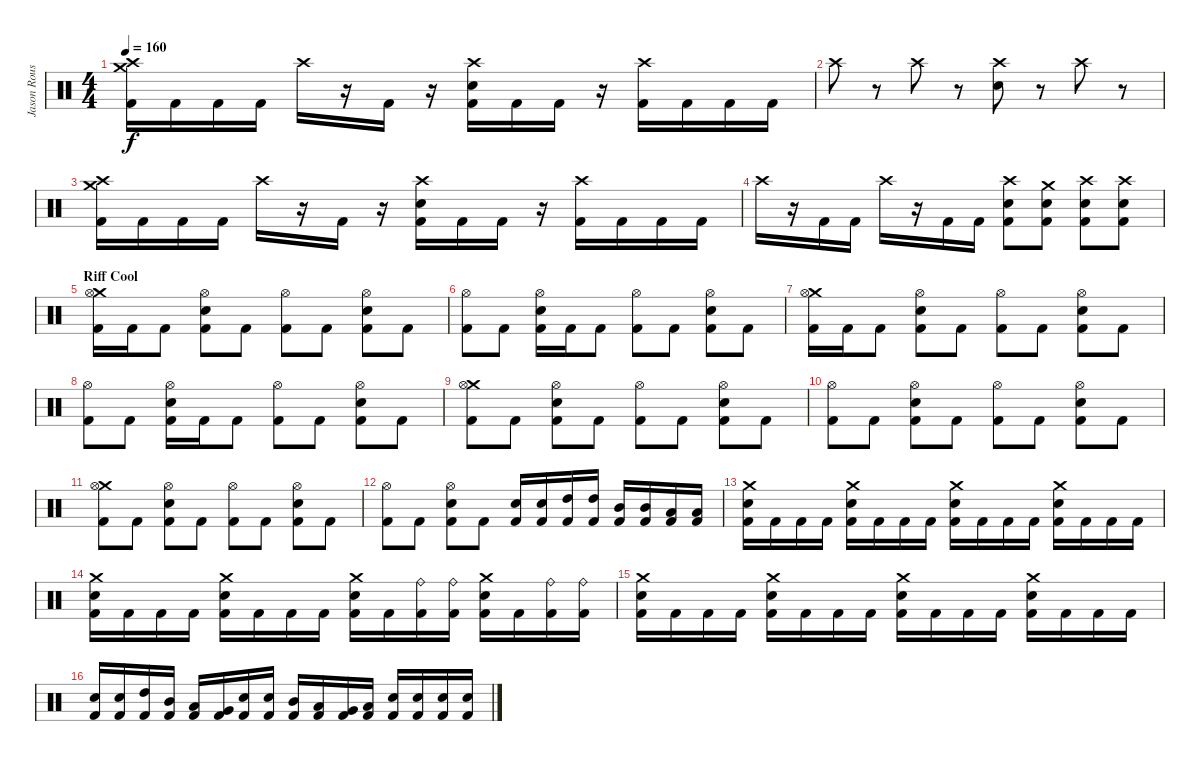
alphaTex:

\track ("Jason Rousseau" "Jason Rous") {instrument percussion}
\staff {score}
\articulation defaults
\ts (4 4)
\tempo 160
\clef neutral
\ks c
("Crash medium (hit)" "Crash high (hit)" "Kick (hit) 2").16{dy f} "Kick (hit) 2".16 "Kick (hit) 2".16 "Kick (hit) 2".16 "Crash high (hit)".16 r.16 "Kick (hit) 2".16 r.16 ("Crash high (hit)" "Electric Snare (hit)" "Kick (hit) 2").16 "Kick (hit) 2".16 "Kick (hit) 2".16 r.16 ("Crash high (hit)" "Kick (hit) 2").16 "Kick (hit) 2".16 "Kick (hit) 2".16 "Kick (hit) 2".16 |
"Crash high (hit)".8 r.8 "Crash high (hit)".8 r.8 ("Crash high (hit)" "Electric Snare (hit)").8 r.8 "Crash high (hit)".8 r.8 |
("Crash medium (hit)" "Crash high (hit)" "Kick (hit) 2").16 "Kick (hit) 2".16 "Kick (hit) 2".16 "Kick (hit) 2".16 "Crash high (hit)".16 r.16 "Kick (hit) 2".16 r.16 ("Crash high (hit)" "Electric Snare (hit)" "Kick (hit) 2").16 "Kick (hit) 2".16 "Kick (hit) 2".16 r.16 ("Crash high (hit)" "Kick (hit) 2").16 "Kick (hit) 2".16 "Kick (hit) 2".16 "Kick (hit) 2".16 |
"Crash high (hit)".16 r.16 "Kick (hit) 2".16 "Kick (hit) 2".16 "Crash high (hit)".16 r.16 "Kick (hit) 2".16 "Kick (hit) 2".16 ("Crash high (hit)" "Electric Snare (hit)" "Kick (hit) 2").8 ("Crash medium (hit)" "Electric Snare (hit)" "Kick (hit) 2").8 ("Crash high (hit)" "Electric Snare (hit)" "Kick (hit) 2").8 ("Crash high (hit)" "Electric Snare (hit)" "Kick (hit) 2").8 |
\section ("" "Riff Cool")
("Crash medium (hit)" "Hi-Hat (open)" "Kick (hit) 2").16 "Kick (hit) 2".16 "Kick (hit) 2".8 ("Hi-Hat (open)" "Electric Snare (hit)" "Kick (hit) 2").8 "Kick (hit) 2".8 ("Hi-Hat (open)" "Kick (hit) 2").8 "Kick (hit) 2".8 ("Hi-Hat (open)" "Electric Snare (hit)" "Kick (hit) 2").8 "Kick (hit) 2".8 |
("Hi-Hat (open)" "Kick (hit) 2").8 "Kick (hit) 2".8 ("Hi-Hat (open)" "Electric Snare (hit)" "Kick (hit) 2").16 "Kick (hit) 2".16 "Kick (hit) 2".8 ("Hi-Hat (open)" "Kick (hit) 2").8 "Kick (hit) 2".8 ("Hi-Hat (open)" "Electric Snare (hit)" "Kick (hit) 2").8 "Kick (hit) 2".8 |
("Crash medium (hit)" "Hi-Hat (open)" "Kick (hit) 2").16 "Kick (hit) 2".16 "Kick (hit) 2".8 ("Hi-Hat (open)" "Electric Snare (hit)" "Kick (hit) 2").8 "Kick (hit) 2".8 ("Hi-Hat (open)" "Kick (hit) 2").8 "Kick (hit) 2".8 ("Hi-Hat (open)" "Electric Snare (hit)" "Kick (hit) 2").8 "Kick (hit) 2".8 |
("Hi-Hat (open)" "Kick (hit) 2").8 "Kick (hit) 2".8 ("Hi-Hat (open)" "Electric Snare (hit)" "Kick (hit) 2").16 "Kick (hit) 2".16 "Kick (hit) 2".8 ("Hi-Hat (open)" "Kick (hit) 2").8 "Kick (hit) 2".8 ("Hi-Hat (open)" "Electric Snare (hit)" "Kick (hit) 2").8 "Kick (hit) 2".8 |
("Crash medium (hit)" "Hi-Hat (open)" "Kick (hit) 2").8 "Kick (hit) 2".8 ("Hi-Hat (open)" "Electric Snare (hit)" "Kick (hit) 2").8 "Kick (hit) 2".8 ("Hi-Hat (open)" "Kick (hit) 2").8 "Kick (hit) 2".8 ("Hi-Hat (open)" "Electric Snare (hit)" "Kick (hit) 2").8 "Kick (hit) 2".8 |
("Hi-Hat (open)" "Kick (hit) 2").8 "Kick (hit) 2".8 ("Hi-Hat (open)" "Electric Snare (hit)" "Kick (hit) 2").8 "Kick (hit) 2".8 ("Hi-Hat (open)" "Kick (hit) 2").8 "Kick (hit) 2".8 ("Hi-Hat (open)" "Electric Snare (hit)" "Kick (hit) 2").8 "Kick (hit) 2".8 |
("Crash medium (hit)" "Hi-Hat (open)" "Kick (hit) 2").8 "Kick (hit) 2".8 ("Hi-Hat (open)" "Electric Snare (hit)" "Kick (hit) 2").8 "Kick (hit) 2".8 ("Hi-Hat (open)" "Kick (hit) 2").8 "Kick (hit) 2".8 ("Hi-Hat (open)" "Electric Snare (hit)" "Kick (hit) 2").8 "Kick (hit) 2".8 |
("Hi-Hat (open)" "Kick (hit) 2").8 "Kick (hit) 2".8 ("Hi-Hat (open)" "Electric Snare (hit)" "Kick (hit) 2").8 "Kick (hit) 2".8 ("Electric Snare (hit)" "Kick (hit) 2").16 ("Electric Snare (hit)" "Kick (hit) 2").16 ("High Tom (hit)" "Kick (hit) 2").16 ("High Tom (hit)" "Kick (hit) 2").16 ("Mid Tom (hit)" "Kick (hit) 2").16 ("Mid Tom (hit)" "Kick (hit) 2").16 ("Low Tom (hit)" "Kick (hit) 2").16 ("Low Tom (hit)" "Kick (hit) 2").16 |
("Crash medium (hit)" "Electric Snare (hit)" "Kick (hit) 2").16 "Kick (hit) 2".16 "Kick (hit) 2".16 "Kick (hit) 2".16 ("Crash medium (hit)" "Electric Snare (hit)" "Kick (hit) 2").16 "Kick (hit) 2".16 "Kick (hit) 2".16 "Kick (hit) 2".16 ("Crash medium (hit)" "Electric Snare (hit)" "Kick (hit) 2").16 "Kick (hit) 2".16 "Kick (hit) 2".16 "Kick (hit) 2".16 ("Crash medium (hit)" "Electric Snare (hit)" "Kick (hit) 2").16 "Kick (hit) 2".16 "Kick (hit) 2".16 "Kick (hit) 2".16 |
("Crash medium (hit)" "Electric Snare (hit)" "Kick (hit) 2").16 "Kick (hit) 2".16 "Kick (hit) 2".16 "Kick (hit) 2".16 ("Crash medium (hit)" "Electric Snare (hit)" "Kick (hit) 2").16 "Kick (hit) 2".16 "Kick (hit) 2".16 "Kick (hit) 2".16 ("Crash medium (hit)" "Electric Snare (hit)" "Kick (hit) 2").16 "Kick (hit) 2".16 ("Ride (bell)" "Kick (hit) 2").16 ("Ride (bell)" "Kick (hit) 2").16 ("Crash medium (hit)" "Electric Snare (hit)" "Kick (hit) 2").16 "Kick (hit) 2".16 ("Ride (bell)" "Kick (hit) 2").16 ("Ride (bell)" "Kick (hit) 2").16 |
("Crash medium (hit)" "Electric Snare (hit)" "Kick (hit) 2").16 "Kick (hit) 2".16 "Kick (hit) 2".16 "Kick (hit) 2".16 ("Crash medium (hit)" "Electric Snare (hit)" "Kick (hit) 2").16 "Kick (hit) 2".16 "Kick (hit) 2".16 "Kick (hit) 2".16 ("Crash medium (hit)" "Electric Snare (hit)" "Kick (hit) 2").16 "Kick (hit) 2".16 "Kick (hit) 2".16 "Kick (hit) 2".16 ("Crash medium (hit)" "Electric Snare (hit)" "Kick (hit) 2").16 "Kick (hit) 2".16 "Kick (hit) 2".16 "Kick (hit) 2".16 |
("Electric Snare (hit)" "Kick (hit) 2").16 ("Electric Snare (hit)" "Kick (hit) 2").16 ("High Tom (hit)" "Kick (hit) 2").16 ("Mid Tom (hit)" "Kick (hit) 2").16 ("Low Tom (hit)" "Kick (hit) 2").16 ("Very Low Tom (hit)" "Kick (hit) 2").16 ("Electric Snare (hit)" "Kick (hit) 2").16 ("Electric Snare (hit)" "Kick (hit) 2").16 ("Mid Tom (hit)" "Kick (hit) 2").16 ("Low Tom (hit)" "Kick (hit) 2").16 ("Very Low Tom (hit)" "Kick (hit) 2").16 ("Low Floor Tom (hit)" "Kick (hit) 2").16 ("Electric Snare (hit)" "Kick (hit) 2").16 ("Electric Snare (hit)" "Kick (hit) 2").16 ("Electric Snare (hit)" "Kick (hit) 2").16 ("Electric Snare (hit)" "Kick (hit) 2").16
